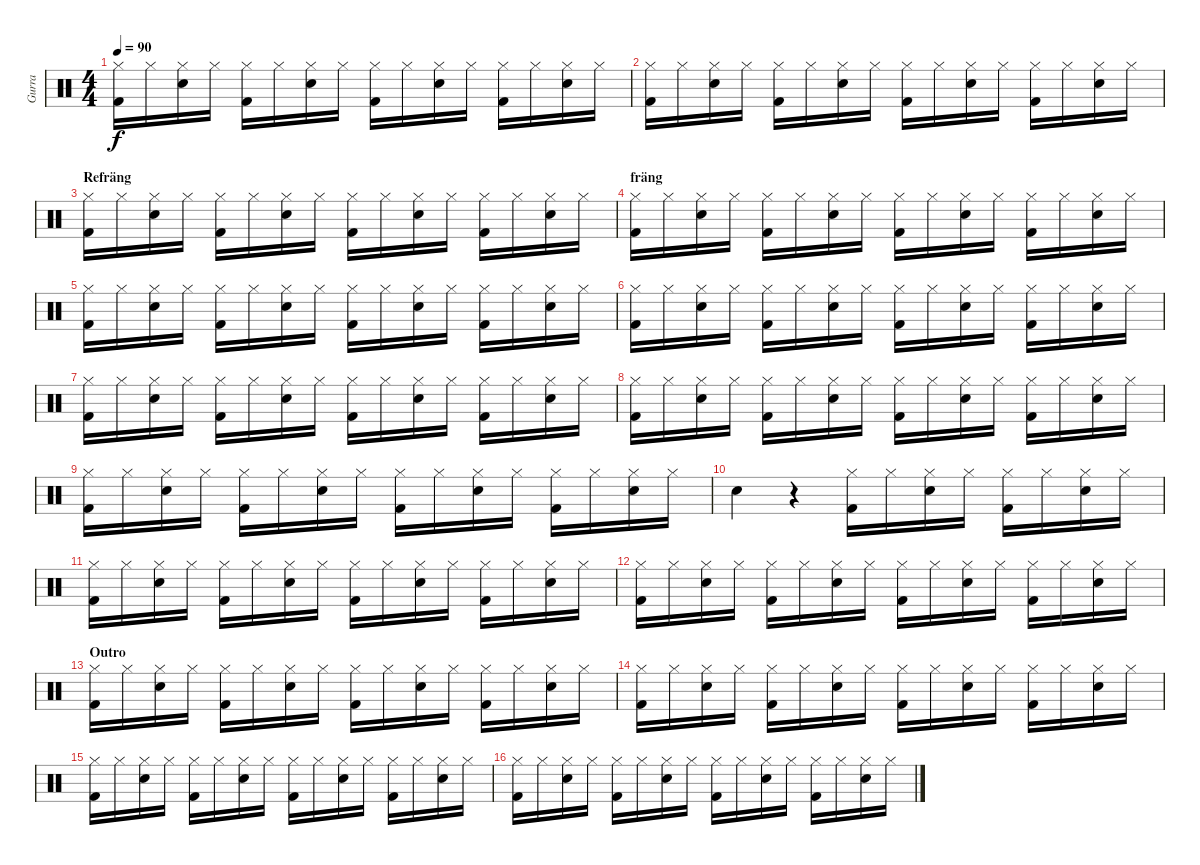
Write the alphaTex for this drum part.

\track ("Gurra" "Gurra") {instrument percussion}
\staff {score}
\articulation defaults
\ts (4 4)
\tempo 90
\clef neutral
\ks c
("Kick (hit) 2" "Hi-Hat (closed)").16{dy f} "Hi-Hat (closed)".16 ("Snare (hit) 2" "Hi-Hat (closed)").16 "Hi-Hat (closed)".16 ("Kick (hit) 2" "Hi-Hat (closed)").16 "Hi-Hat (closed)".16 ("Snare (hit) 2" "Hi-Hat (closed)").16 "Hi-Hat (closed)".16 ("Kick (hit) 2" "Hi-Hat (closed)").16 "Hi-Hat (closed)".16 ("Snare (hit) 2" "Hi-Hat (closed)").16 "Hi-Hat (closed)".16 ("Kick (hit) 2" "Hi-Hat (closed)").16 "Hi-Hat (closed)".16 ("Snare (hit) 2" "Hi-Hat (closed)").16 "Hi-Hat (closed)".16 |
("Kick (hit) 2" "Hi-Hat (closed)").16 "Hi-Hat (closed)".16 ("Snare (hit) 2" "Hi-Hat (closed)").16 "Hi-Hat (closed)".16 ("Kick (hit) 2" "Hi-Hat (closed)").16 "Hi-Hat (closed)".16 ("Snare (hit) 2" "Hi-Hat (closed)").16 "Hi-Hat (closed)".16 ("Kick (hit) 2" "Hi-Hat (closed)").16 "Hi-Hat (closed)".16 ("Snare (hit) 2" "Hi-Hat (closed)").16 "Hi-Hat (closed)".16 ("Kick (hit) 2" "Hi-Hat (closed)").16 "Hi-Hat (closed)".16 ("Snare (hit) 2" "Hi-Hat (closed)").16 "Hi-Hat (closed)".16 |
\section ("" "Refräng")
("Kick (hit) 2" "Hi-Hat (closed)").16 "Hi-Hat (closed)".16 ("Snare (hit) 2" "Hi-Hat (closed)").16 "Hi-Hat (closed)".16 ("Kick (hit) 2" "Hi-Hat (closed)").16 "Hi-Hat (closed)".16 ("Snare (hit) 2" "Hi-Hat (closed)").16 "Hi-Hat (closed)".16 ("Kick (hit) 2" "Hi-Hat (closed)").16 "Hi-Hat (closed)".16 ("Snare (hit) 2" "Hi-Hat (closed)").16 "Hi-Hat (closed)".16 ("Kick (hit) 2" "Hi-Hat (closed)").16 "Hi-Hat (closed)".16 ("Snare (hit) 2" "Hi-Hat (closed)").16 "Hi-Hat (closed)".16 |
\section ("" "fräng")
("Kick (hit) 2" "Hi-Hat (closed)").16 "Hi-Hat (closed)".16 ("Snare (hit) 2" "Hi-Hat (closed)").16 "Hi-Hat (closed)".16 ("Kick (hit) 2" "Hi-Hat (closed)").16 "Hi-Hat (closed)".16 ("Snare (hit) 2" "Hi-Hat (closed)").16 "Hi-Hat (closed)".16 ("Kick (hit) 2" "Hi-Hat (closed)").16 "Hi-Hat (closed)".16 ("Snare (hit) 2" "Hi-Hat (closed)").16 "Hi-Hat (closed)".16 ("Kick (hit) 2" "Hi-Hat (closed)").16 "Hi-Hat (closed)".16 ("Snare (hit) 2" "Hi-Hat (closed)").16 "Hi-Hat (closed)".16 |
("Kick (hit) 2" "Hi-Hat (closed)").16 "Hi-Hat (closed)".16 ("Snare (hit) 2" "Hi-Hat (closed)").16 "Hi-Hat (closed)".16 ("Kick (hit) 2" "Hi-Hat (closed)").16 "Hi-Hat (closed)".16 ("Snare (hit) 2" "Hi-Hat (closed)").16 "Hi-Hat (closed)".16 ("Kick (hit) 2" "Hi-Hat (closed)").16 "Hi-Hat (closed)".16 ("Snare (hit) 2" "Hi-Hat (closed)").16 "Hi-Hat (closed)".16 ("Kick (hit) 2" "Hi-Hat (closed)").16 "Hi-Hat (closed)".16 ("Snare (hit) 2" "Hi-Hat (closed)").16 "Hi-Hat (closed)".16 |
("Kick (hit) 2" "Hi-Hat (closed)").16 "Hi-Hat (closed)".16 ("Snare (hit) 2" "Hi-Hat (closed)").16 "Hi-Hat (closed)".16 ("Kick (hit) 2" "Hi-Hat (closed)").16 "Hi-Hat (closed)".16 ("Snare (hit) 2" "Hi-Hat (closed)").16 "Hi-Hat (closed)".16 ("Kick (hit) 2" "Hi-Hat (closed)").16 "Hi-Hat (closed)".16 ("Snare (hit) 2" "Hi-Hat (closed)").16 "Hi-Hat (closed)".16 ("Kick (hit) 2" "Hi-Hat (closed)").16 "Hi-Hat (closed)".16 ("Snare (hit) 2" "Hi-Hat (closed)").16 "Hi-Hat (closed)".16 |
("Kick (hit) 2" "Hi-Hat (closed)").16 "Hi-Hat (closed)".16 ("Snare (hit) 2" "Hi-Hat (closed)").16 "Hi-Hat (closed)".16 ("Kick (hit) 2" "Hi-Hat (closed)").16 "Hi-Hat (closed)".16 ("Snare (hit) 2" "Hi-Hat (closed)").16 "Hi-Hat (closed)".16 ("Kick (hit) 2" "Hi-Hat (closed)").16 "Hi-Hat (closed)".16 ("Snare (hit) 2" "Hi-Hat (closed)").16 "Hi-Hat (closed)".16 ("Kick (hit) 2" "Hi-Hat (closed)").16 "Hi-Hat (closed)".16 ("Snare (hit) 2" "Hi-Hat (closed)").16 "Hi-Hat (closed)".16 |
("Kick (hit) 2" "Hi-Hat (closed)").16 "Hi-Hat (closed)".16 ("Snare (hit) 2" "Hi-Hat (closed)").16 "Hi-Hat (closed)".16 ("Kick (hit) 2" "Hi-Hat (closed)").16 "Hi-Hat (closed)".16 ("Snare (hit) 2" "Hi-Hat (closed)").16 "Hi-Hat (closed)".16 ("Kick (hit) 2" "Hi-Hat (closed)").16 "Hi-Hat (closed)".16 ("Snare (hit) 2" "Hi-Hat (closed)").16 "Hi-Hat (closed)".16 ("Kick (hit) 2" "Hi-Hat (closed)").16 "Hi-Hat (closed)".16 ("Snare (hit) 2" "Hi-Hat (closed)").16 "Hi-Hat (closed)".16 |
("Kick (hit) 2" "Hi-Hat (closed)").16 "Hi-Hat (closed)".16 ("Snare (hit) 2" "Hi-Hat (closed)").16 "Hi-Hat (closed)".16 ("Kick (hit) 2" "Hi-Hat (closed)").16 "Hi-Hat (closed)".16 ("Snare (hit) 2" "Hi-Hat (closed)").16 "Hi-Hat (closed)".16 ("Kick (hit) 2" "Hi-Hat (closed)").16 "Hi-Hat (closed)".16 ("Snare (hit) 2" "Hi-Hat (closed)").16 "Hi-Hat (closed)".16 ("Kick (hit) 2" "Hi-Hat (closed)").16 "Hi-Hat (closed)".16 ("Snare (hit) 2" "Hi-Hat (closed)").16 "Hi-Hat (closed)".16 |
"Snare (hit) 2".4 r.4 ("Kick (hit) 2" "Hi-Hat (closed)").16 "Hi-Hat (closed)".16 ("Snare (hit) 2" "Hi-Hat (closed)").16 "Hi-Hat (closed)".16 ("Kick (hit) 2" "Hi-Hat (closed)").16 "Hi-Hat (closed)".16 ("Snare (hit) 2" "Hi-Hat (closed)").16 "Hi-Hat (closed)".16 |
("Kick (hit) 2" "Hi-Hat (closed)").16 "Hi-Hat (closed)".16 ("Snare (hit) 2" "Hi-Hat (closed)").16 "Hi-Hat (closed)".16 ("Kick (hit) 2" "Hi-Hat (closed)").16 "Hi-Hat (closed)".16 ("Snare (hit) 2" "Hi-Hat (closed)").16 "Hi-Hat (closed)".16 ("Kick (hit) 2" "Hi-Hat (closed)").16 "Hi-Hat (closed)".16 ("Snare (hit) 2" "Hi-Hat (closed)").16 "Hi-Hat (closed)".16 ("Kick (hit) 2" "Hi-Hat (closed)").16 "Hi-Hat (closed)".16 ("Snare (hit) 2" "Hi-Hat (closed)").16 "Hi-Hat (closed)".16 |
("Kick (hit) 2" "Hi-Hat (closed)").16 "Hi-Hat (closed)".16 ("Snare (hit) 2" "Hi-Hat (closed)").16 "Hi-Hat (closed)".16 ("Kick (hit) 2" "Hi-Hat (closed)").16 "Hi-Hat (closed)".16 ("Snare (hit) 2" "Hi-Hat (closed)").16 "Hi-Hat (closed)".16 ("Kick (hit) 2" "Hi-Hat (closed)").16 "Hi-Hat (closed)".16 ("Snare (hit) 2" "Hi-Hat (closed)").16 "Hi-Hat (closed)".16 ("Kick (hit) 2" "Hi-Hat (closed)").16 "Hi-Hat (closed)".16 ("Snare (hit) 2" "Hi-Hat (closed)").16 "Hi-Hat (closed)".16 |
\section ("" "Outro")
("Kick (hit) 2" "Hi-Hat (closed)").16 "Hi-Hat (closed)".16 ("Snare (hit) 2" "Hi-Hat (closed)").16 "Hi-Hat (closed)".16 ("Kick (hit) 2" "Hi-Hat (closed)").16 "Hi-Hat (closed)".16 ("Snare (hit) 2" "Hi-Hat (closed)").16 "Hi-Hat (closed)".16 ("Kick (hit) 2" "Hi-Hat (closed)").16 "Hi-Hat (closed)".16 ("Snare (hit) 2" "Hi-Hat (closed)").16 "Hi-Hat (closed)".16 ("Kick (hit) 2" "Hi-Hat (closed)").16 "Hi-Hat (closed)".16 ("Snare (hit) 2" "Hi-Hat (closed)").16 "Hi-Hat (closed)".16 |
("Kick (hit) 2" "Hi-Hat (closed)").16 "Hi-Hat (closed)".16 ("Snare (hit) 2" "Hi-Hat (closed)").16 "Hi-Hat (closed)".16 ("Kick (hit) 2" "Hi-Hat (closed)").16 "Hi-Hat (closed)".16 ("Snare (hit) 2" "Hi-Hat (closed)").16 "Hi-Hat (closed)".16 ("Kick (hit) 2" "Hi-Hat (closed)").16 "Hi-Hat (closed)".16 ("Snare (hit) 2" "Hi-Hat (closed)").16 "Hi-Hat (closed)".16 ("Kick (hit) 2" "Hi-Hat (closed)").16 "Hi-Hat (closed)".16 ("Snare (hit) 2" "Hi-Hat (closed)").16 "Hi-Hat (closed)".16 |
("Kick (hit) 2" "Hi-Hat (closed)").16 "Hi-Hat (closed)".16 ("Snare (hit) 2" "Hi-Hat (closed)").16 "Hi-Hat (closed)".16 ("Kick (hit) 2" "Hi-Hat (closed)").16 "Hi-Hat (closed)".16 ("Snare (hit) 2" "Hi-Hat (closed)").16 "Hi-Hat (closed)".16 ("Kick (hit) 2" "Hi-Hat (closed)").16 "Hi-Hat (closed)".16 ("Snare (hit) 2" "Hi-Hat (closed)").16 "Hi-Hat (closed)".16 ("Kick (hit) 2" "Hi-Hat (closed)").16 "Hi-Hat (closed)".16 ("Snare (hit) 2" "Hi-Hat (closed)").16 "Hi-Hat (closed)".16 |
("Kick (hit) 2" "Hi-Hat (closed)").16 "Hi-Hat (closed)".16 ("Snare (hit) 2" "Hi-Hat (closed)").16 "Hi-Hat (closed)".16 ("Kick (hit) 2" "Hi-Hat (closed)").16 "Hi-Hat (closed)".16 ("Snare (hit) 2" "Hi-Hat (closed)").16 "Hi-Hat (closed)".16 ("Kick (hit) 2" "Hi-Hat (closed)").16 "Hi-Hat (closed)".16 ("Snare (hit) 2" "Hi-Hat (closed)").16 "Hi-Hat (closed)".16 ("Kick (hit) 2" "Hi-Hat (closed)").16 "Hi-Hat (closed)".16 ("Snare (hit) 2" "Hi-Hat (closed)").16 "Hi-Hat (closed)".16
